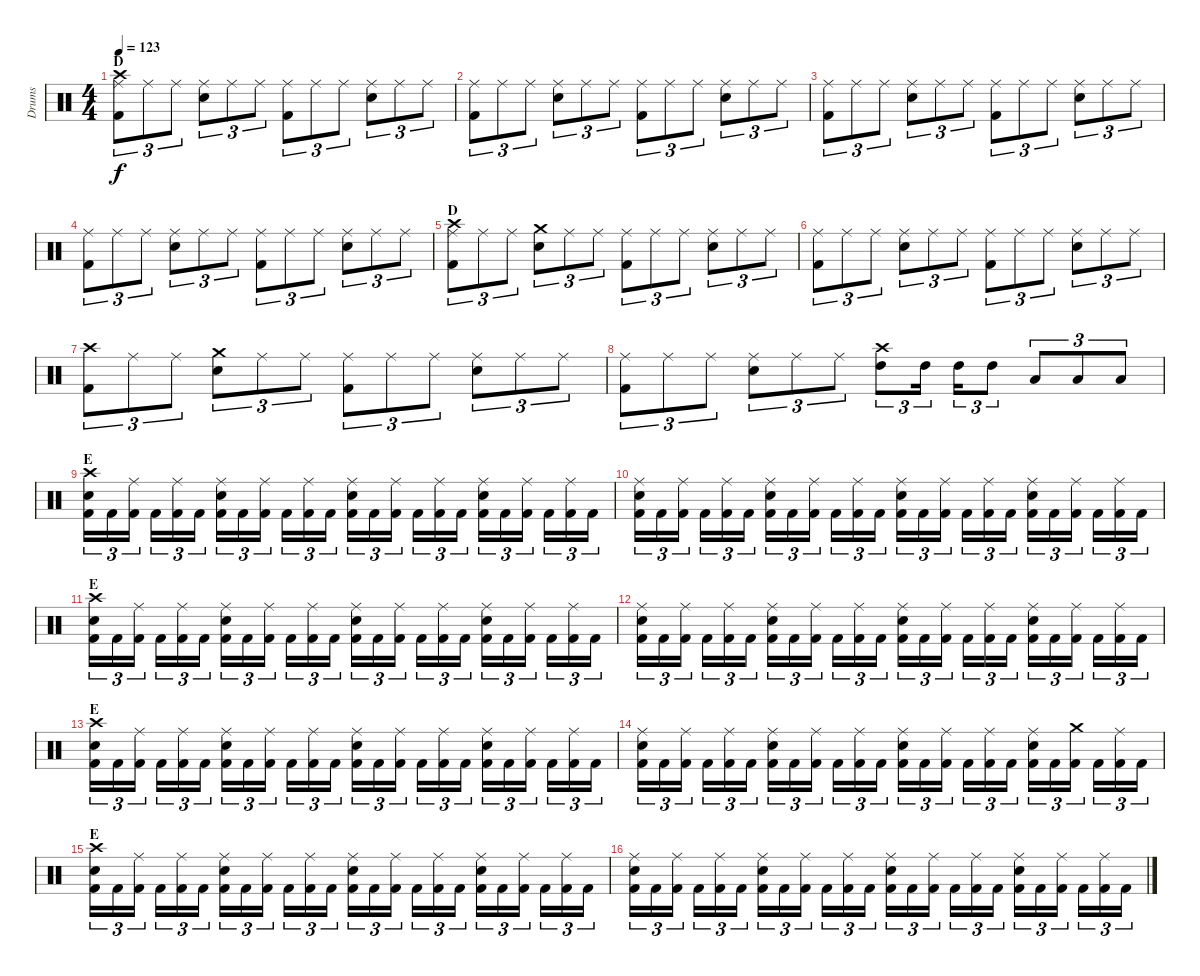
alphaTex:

\track ("Drums" "Drums") {instrument percussion}
\staff {score}
\articulation defaults
\ts (4 4)
\section ("" "D")
\tempo 123
\clef neutral
\ks c
("Crash high (hit)" "Ride (middle)" "Kick (hit) 2").8{tu (3 2) dy f} "Ride (middle)".8{tu (3 2)} "Ride (middle)".8{tu (3 2)} ("Ride (middle)" "Snare (hit) 2").8{tu (3 2)} "Ride (middle)".8{tu (3 2)} "Ride (middle)".8{tu (3 2)} ("Ride (middle)" "Kick (hit) 2").8{tu (3 2)} "Ride (middle)".8{tu (3 2)} "Ride (middle)".8{tu (3 2)} ("Ride (middle)" "Snare (hit) 2").8{tu (3 2)} "Ride (middle)".8{tu (3 2)} "Ride (middle)".8{tu (3 2)} |
("Ride (middle)" "Kick (hit) 2").8{tu (3 2)} "Ride (middle)".8{tu (3 2)} "Ride (middle)".8{tu (3 2)} ("Ride (middle)" "Snare (hit) 2").8{tu (3 2)} "Ride (middle)".8{tu (3 2)} "Ride (middle)".8{tu (3 2)} ("Ride (middle)" "Kick (hit) 2").8{tu (3 2)} "Ride (middle)".8{tu (3 2)} "Ride (middle)".8{tu (3 2)} ("Ride (middle)" "Snare (hit) 2").8{tu (3 2)} "Ride (middle)".8{tu (3 2)} "Ride (middle)".8{tu (3 2)} |
("Ride (middle)" "Kick (hit) 2").8{tu (3 2)} "Ride (middle)".8{tu (3 2)} "Ride (middle)".8{tu (3 2)} ("Ride (middle)" "Snare (hit) 2").8{tu (3 2)} "Ride (middle)".8{tu (3 2)} "Ride (middle)".8{tu (3 2)} ("Ride (middle)" "Kick (hit) 2").8{tu (3 2)} "Ride (middle)".8{tu (3 2)} "Ride (middle)".8{tu (3 2)} ("Ride (middle)" "Snare (hit) 2").8{tu (3 2)} "Ride (middle)".8{tu (3 2)} "Ride (middle)".8{tu (3 2)} |
("Ride (middle)" "Kick (hit) 2").8{tu (3 2)} "Ride (middle)".8{tu (3 2)} "Ride (middle)".8{tu (3 2)} ("Ride (middle)" "Snare (hit) 2").8{tu (3 2)} "Ride (middle)".8{tu (3 2)} "Ride (middle)".8{tu (3 2)} ("Ride (middle)" "Kick (hit) 2").8{tu (3 2)} "Ride (middle)".8{tu (3 2)} "Ride (middle)".8{tu (3 2)} ("Ride (middle)" "Snare (hit) 2").8{tu (3 2)} "Ride (middle)".8{tu (3 2)} "Ride (middle)".8{tu (3 2)} |
\section ("" "D")
("Crash high (hit)" "Ride (middle)" "Kick (hit) 2").8{tu (3 2)} "Ride (middle)".8{tu (3 2)} "Ride (middle)".8{tu (3 2)} ("Crash medium (hit)" "Snare (hit) 2").8{tu (3 2)} "Ride (middle)".8{tu (3 2)} "Ride (middle)".8{tu (3 2)} ("Ride (middle)" "Kick (hit) 2").8{tu (3 2)} "Ride (middle)".8{tu (3 2)} "Ride (middle)".8{tu (3 2)} ("Ride (middle)" "Snare (hit) 2").8{tu (3 2)} "Ride (middle)".8{tu (3 2)} "Ride (middle)".8{tu (3 2)} |
("Ride (middle)" "Kick (hit) 2").8{tu (3 2)} "Ride (middle)".8{tu (3 2)} "Ride (middle)".8{tu (3 2)} ("Ride (middle)" "Snare (hit) 2").8{tu (3 2)} "Ride (middle)".8{tu (3 2)} "Ride (middle)".8{tu (3 2)} ("Ride (middle)" "Kick (hit) 2").8{tu (3 2)} "Ride (middle)".8{tu (3 2)} "Ride (middle)".8{tu (3 2)} ("Ride (middle)" "Snare (hit) 2").8{tu (3 2)} "Ride (middle)".8{tu (3 2)} "Ride (middle)".8{tu (3 2)} |
("Crash high (hit)" "Kick (hit) 2").8{tu (3 2)} "Ride (middle)".8{tu (3 2)} "Ride (middle)".8{tu (3 2)} ("Crash medium (hit)" "Snare (hit) 2").8{tu (3 2)} "Ride (middle)".8{tu (3 2)} "Ride (middle)".8{tu (3 2)} ("Ride (middle)" "Kick (hit) 2").8{tu (3 2)} "Ride (middle)".8{tu (3 2)} "Ride (middle)".8{tu (3 2)} ("Ride (middle)" "Snare (hit) 2").8{tu (3 2)} "Ride (middle)".8{tu (3 2)} "Ride (middle)".8{tu (3 2)} |
("Ride (middle)" "Kick (hit) 2").8{tu (3 2)} "Ride (middle)".8{tu (3 2)} "Ride (middle)".8{tu (3 2)} ("Ride (middle)" "Snare (hit) 2").8{tu (3 2)} "Ride (middle)".8{tu (3 2)} "Ride (middle)".8{tu (3 2)} ("Crash high (hit)" "High Tom (hit)").8{tu (3 2)} "High Tom (hit)".16{tu (3 2)} "High Tom (hit)".16{tu (3 2)} "High Tom (hit)".8{tu (3 2)} "Low Tom (hit)".8{tu (3 2)} "Low Tom (hit)".8{tu (3 2)} "Low Floor Tom (hit)".8{tu (3 2)} |
\section ("" "E")
("Crash high (hit)" "Snare (hit) 2" "Kick (hit) 2").16{tu (3 2)} "Kick (hit) 2".16{tu (3 2)} ("Ride (middle)" "Kick (hit) 2").16{tu (3 2)} "Kick (hit) 2".16{tu (3 2)} ("Ride (middle)" "Kick (hit) 2").16{tu (3 2)} "Kick (hit) 2".16{tu (3 2)} ("Ride (middle)" "Snare (hit) 2" "Kick (hit) 2").16{tu (3 2)} "Kick (hit) 2".16{tu (3 2)} ("Ride (middle)" "Kick (hit) 2").16{tu (3 2)} "Kick (hit) 2".16{tu (3 2)} ("Ride (middle)" "Kick (hit) 2").16{tu (3 2)} "Kick (hit) 2".16{tu (3 2)} ("Ride (middle)" "Snare (hit) 2" "Kick (hit) 2").16{tu (3 2)} "Kick (hit) 2".16{tu (3 2)} ("Ride (middle)" "Kick (hit) 2").16{tu (3 2)} "Kick (hit) 2".16{tu (3 2)} ("Ride (middle)" "Kick (hit) 2").16{tu (3 2)} "Kick (hit) 2".16{tu (3 2)} ("Ride (middle)" "Snare (hit) 2" "Kick (hit) 2").16{tu (3 2)} "Kick (hit) 2".16{tu (3 2)} ("Ride (middle)" "Kick (hit) 2").16{tu (3 2)} "Kick (hit) 2".16{tu (3 2)} ("Ride (middle)" "Kick (hit) 2").16{tu (3 2)} "Kick (hit) 2".16{tu (3 2)} |
("Ride (middle)" "Snare (hit) 2" "Kick (hit) 2").16{tu (3 2)} "Kick (hit) 2".16{tu (3 2)} ("Ride (middle)" "Kick (hit) 2").16{tu (3 2)} "Kick (hit) 2".16{tu (3 2)} ("Ride (middle)" "Kick (hit) 2").16{tu (3 2)} "Kick (hit) 2".16{tu (3 2)} ("Ride (middle)" "Snare (hit) 2" "Kick (hit) 2").16{tu (3 2)} "Kick (hit) 2".16{tu (3 2)} ("Ride (middle)" "Kick (hit) 2").16{tu (3 2)} "Kick (hit) 2".16{tu (3 2)} ("Ride (middle)" "Kick (hit) 2").16{tu (3 2)} "Kick (hit) 2".16{tu (3 2)} ("Ride (middle)" "Snare (hit) 2" "Kick (hit) 2").16{tu (3 2)} "Kick (hit) 2".16{tu (3 2)} ("Ride (middle)" "Kick (hit) 2").16{tu (3 2)} "Kick (hit) 2".16{tu (3 2)} ("Ride (middle)" "Kick (hit) 2").16{tu (3 2)} "Kick (hit) 2".16{tu (3 2)} ("Ride (middle)" "Snare (hit) 2" "Kick (hit) 2").16{tu (3 2)} "Kick (hit) 2".16{tu (3 2)} ("Ride (middle)" "Kick (hit) 2").16{tu (3 2)} "Kick (hit) 2".16{tu (3 2)} ("Ride (middle)" "Kick (hit) 2").16{tu (3 2)} "Kick (hit) 2".16{tu (3 2)} |
\section ("" "E")
("Crash high (hit)" "Snare (hit) 2" "Kick (hit) 2").16{tu (3 2)} "Kick (hit) 2".16{tu (3 2)} ("Ride (middle)" "Kick (hit) 2").16{tu (3 2)} "Kick (hit) 2".16{tu (3 2)} ("Ride (middle)" "Kick (hit) 2").16{tu (3 2)} "Kick (hit) 2".16{tu (3 2)} ("Ride (middle)" "Snare (hit) 2" "Kick (hit) 2").16{tu (3 2)} "Kick (hit) 2".16{tu (3 2)} ("Ride (middle)" "Kick (hit) 2").16{tu (3 2)} "Kick (hit) 2".16{tu (3 2)} ("Ride (middle)" "Kick (hit) 2").16{tu (3 2)} "Kick (hit) 2".16{tu (3 2)} ("Ride (middle)" "Snare (hit) 2" "Kick (hit) 2").16{tu (3 2)} "Kick (hit) 2".16{tu (3 2)} ("Ride (middle)" "Kick (hit) 2").16{tu (3 2)} "Kick (hit) 2".16{tu (3 2)} ("Ride (middle)" "Kick (hit) 2").16{tu (3 2)} "Kick (hit) 2".16{tu (3 2)} ("Ride (middle)" "Snare (hit) 2" "Kick (hit) 2").16{tu (3 2)} "Kick (hit) 2".16{tu (3 2)} ("Ride (middle)" "Kick (hit) 2").16{tu (3 2)} "Kick (hit) 2".16{tu (3 2)} ("Ride (middle)" "Kick (hit) 2").16{tu (3 2)} "Kick (hit) 2".16{tu (3 2)} |
("Ride (middle)" "Snare (hit) 2" "Kick (hit) 2").16{tu (3 2)} "Kick (hit) 2".16{tu (3 2)} ("Ride (middle)" "Kick (hit) 2").16{tu (3 2)} "Kick (hit) 2".16{tu (3 2)} ("Ride (middle)" "Kick (hit) 2").16{tu (3 2)} "Kick (hit) 2".16{tu (3 2)} ("Ride (middle)" "Snare (hit) 2" "Kick (hit) 2").16{tu (3 2)} "Kick (hit) 2".16{tu (3 2)} ("Ride (middle)" "Kick (hit) 2").16{tu (3 2)} "Kick (hit) 2".16{tu (3 2)} ("Ride (middle)" "Kick (hit) 2").16{tu (3 2)} "Kick (hit) 2".16{tu (3 2)} ("Ride (middle)" "Snare (hit) 2" "Kick (hit) 2").16{tu (3 2)} "Kick (hit) 2".16{tu (3 2)} ("Ride (middle)" "Kick (hit) 2").16{tu (3 2)} "Kick (hit) 2".16{tu (3 2)} ("Ride (middle)" "Kick (hit) 2").16{tu (3 2)} "Kick (hit) 2".16{tu (3 2)} ("Ride (middle)" "Snare (hit) 2" "Kick (hit) 2").16{tu (3 2)} "Kick (hit) 2".16{tu (3 2)} ("Ride (middle)" "Kick (hit) 2").16{tu (3 2)} "Kick (hit) 2".16{tu (3 2)} ("Ride (middle)" "Kick (hit) 2").16{tu (3 2)} "Kick (hit) 2".16{tu (3 2)} |
\section ("" "E")
("Crash high (hit)" "Snare (hit) 2" "Kick (hit) 2").16{tu (3 2)} "Kick (hit) 2".16{tu (3 2)} ("Ride (middle)" "Kick (hit) 2").16{tu (3 2)} "Kick (hit) 2".16{tu (3 2)} ("Ride (middle)" "Kick (hit) 2").16{tu (3 2)} "Kick (hit) 2".16{tu (3 2)} ("Ride (middle)" "Snare (hit) 2" "Kick (hit) 2").16{tu (3 2)} "Kick (hit) 2".16{tu (3 2)} ("Ride (middle)" "Kick (hit) 2").16{tu (3 2)} "Kick (hit) 2".16{tu (3 2)} ("Ride (middle)" "Kick (hit) 2").16{tu (3 2)} "Kick (hit) 2".16{tu (3 2)} ("Ride (middle)" "Snare (hit) 2" "Kick (hit) 2").16{tu (3 2)} "Kick (hit) 2".16{tu (3 2)} ("Ride (middle)" "Kick (hit) 2").16{tu (3 2)} "Kick (hit) 2".16{tu (3 2)} ("Ride (middle)" "Kick (hit) 2").16{tu (3 2)} "Kick (hit) 2".16{tu (3 2)} ("Ride (middle)" "Snare (hit) 2" "Kick (hit) 2").16{tu (3 2)} "Kick (hit) 2".16{tu (3 2)} ("Ride (middle)" "Kick (hit) 2").16{tu (3 2)} "Kick (hit) 2".16{tu (3 2)} ("Ride (middle)" "Kick (hit) 2").16{tu (3 2)} "Kick (hit) 2".16{tu (3 2)} |
("Ride (middle)" "Snare (hit) 2" "Kick (hit) 2").16{tu (3 2)} "Kick (hit) 2".16{tu (3 2)} ("Ride (middle)" "Kick (hit) 2").16{tu (3 2)} "Kick (hit) 2".16{tu (3 2)} ("Ride (middle)" "Kick (hit) 2").16{tu (3 2)} "Kick (hit) 2".16{tu (3 2)} ("Ride (middle)" "Snare (hit) 2" "Kick (hit) 2").16{tu (3 2)} "Kick (hit) 2".16{tu (3 2)} ("Ride (middle)" "Kick (hit) 2").16{tu (3 2)} "Kick (hit) 2".16{tu (3 2)} ("Ride (middle)" "Kick (hit) 2").16{tu (3 2)} "Kick (hit) 2".16{tu (3 2)} ("Ride (middle)" "Snare (hit) 2" "Kick (hit) 2").16{tu (3 2)} "Kick (hit) 2".16{tu (3 2)} ("Ride (middle)" "Kick (hit) 2").16{tu (3 2)} "Kick (hit) 2".16{tu (3 2)} ("Ride (middle)" "Kick (hit) 2").16{tu (3 2)} "Kick (hit) 2".16{tu (3 2)} ("Ride (middle)" "Snare (hit) 2" "Kick (hit) 2").16{tu (3 2)} "Kick (hit) 2".16{tu (3 2)} ("Crash medium (hit)" "Kick (hit) 2").16{tu (3 2)} "Kick (hit) 2".16{tu (3 2)} ("Ride (middle)" "Kick (hit) 2").16{tu (3 2)} "Kick (hit) 2".16{tu (3 2)} |
\section ("" "E")
("Crash high (hit)" "Snare (hit) 2" "Kick (hit) 2").16{tu (3 2)} "Kick (hit) 2".16{tu (3 2)} ("Ride (middle)" "Kick (hit) 2").16{tu (3 2)} "Kick (hit) 2".16{tu (3 2)} ("Ride (middle)" "Kick (hit) 2").16{tu (3 2)} "Kick (hit) 2".16{tu (3 2)} ("Ride (middle)" "Snare (hit) 2" "Kick (hit) 2").16{tu (3 2)} "Kick (hit) 2".16{tu (3 2)} ("Ride (middle)" "Kick (hit) 2").16{tu (3 2)} "Kick (hit) 2".16{tu (3 2)} ("Ride (middle)" "Kick (hit) 2").16{tu (3 2)} "Kick (hit) 2".16{tu (3 2)} ("Ride (middle)" "Snare (hit) 2" "Kick (hit) 2").16{tu (3 2)} "Kick (hit) 2".16{tu (3 2)} ("Ride (middle)" "Kick (hit) 2").16{tu (3 2)} "Kick (hit) 2".16{tu (3 2)} ("Ride (middle)" "Kick (hit) 2").16{tu (3 2)} "Kick (hit) 2".16{tu (3 2)} ("Ride (middle)" "Snare (hit) 2" "Kick (hit) 2").16{tu (3 2)} "Kick (hit) 2".16{tu (3 2)} ("Ride (middle)" "Kick (hit) 2").16{tu (3 2)} "Kick (hit) 2".16{tu (3 2)} ("Ride (middle)" "Kick (hit) 2").16{tu (3 2)} "Kick (hit) 2".16{tu (3 2)} |
("Ride (middle)" "Snare (hit) 2" "Kick (hit) 2").16{tu (3 2)} "Kick (hit) 2".16{tu (3 2)} ("Ride (middle)" "Kick (hit) 2").16{tu (3 2)} "Kick (hit) 2".16{tu (3 2)} ("Ride (middle)" "Kick (hit) 2").16{tu (3 2)} "Kick (hit) 2".16{tu (3 2)} ("Ride (middle)" "Snare (hit) 2" "Kick (hit) 2").16{tu (3 2)} "Kick (hit) 2".16{tu (3 2)} ("Ride (middle)" "Kick (hit) 2").16{tu (3 2)} "Kick (hit) 2".16{tu (3 2)} ("Ride (middle)" "Kick (hit) 2").16{tu (3 2)} "Kick (hit) 2".16{tu (3 2)} ("Ride (middle)" "Snare (hit) 2" "Kick (hit) 2").16{tu (3 2)} "Kick (hit) 2".16{tu (3 2)} ("Ride (middle)" "Kick (hit) 2").16{tu (3 2)} "Kick (hit) 2".16{tu (3 2)} ("Ride (middle)" "Kick (hit) 2").16{tu (3 2)} "Kick (hit) 2".16{tu (3 2)} ("Ride (middle)" "Snare (hit) 2" "Kick (hit) 2").16{tu (3 2)} "Kick (hit) 2".16{tu (3 2)} ("Ride (middle)" "Kick (hit) 2").16{tu (3 2)} "Kick (hit) 2".16{tu (3 2)} ("Ride (middle)" "Kick (hit) 2").16{tu (3 2)} "Kick (hit) 2".16{tu (3 2)}
